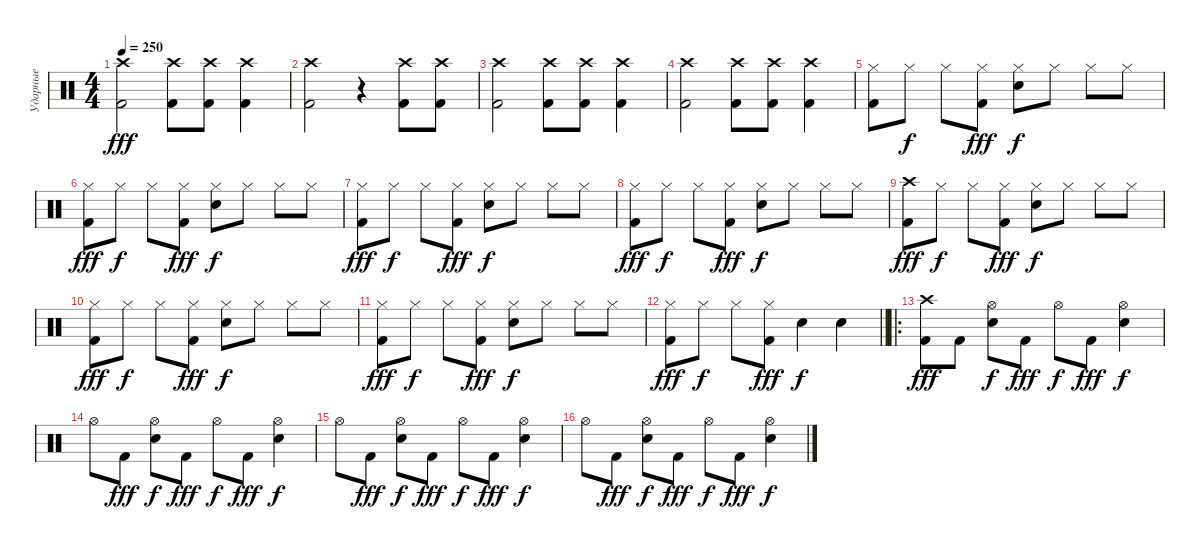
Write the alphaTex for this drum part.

\track ("Ударные" "Ударные") {instrument percussion}
\staff {score}
\articulation defaults
\ts (4 4)
\tempo 250
\clef neutral
\ks c
("Kick (hit) 2" "Crash high (hit)").2{dy fff} ("Kick (hit) 2" "Crash high (hit)").8 ("Kick (hit) 2" "Crash high (hit)").8 ("Kick (hit) 2" "Crash high (hit)").4 |
("Kick (hit) 2" "Crash high (hit)").2 r.4 ("Kick (hit) 2" "Crash high (hit)").8 ("Kick (hit) 2" "Crash high (hit)").8 |
("Kick (hit) 2" "Crash high (hit)").2 ("Kick (hit) 2" "Crash high (hit)").8 ("Kick (hit) 2" "Crash high (hit)").8 ("Kick (hit) 2" "Crash high (hit)").4 |
("Kick (hit) 2" "Crash high (hit)").2 ("Kick (hit) 2" "Crash high (hit)").8 ("Kick (hit) 2" "Crash high (hit)").8 ("Kick (hit) 2" "Crash high (hit)").4 |
("Kick (hit) 2" "Hi-Hat (closed)").8 "Hi-Hat (closed)".8{dy f} "Hi-Hat (closed)".8 ("Kick (hit) 2" "Hi-Hat (closed)").8{dy fff} ("Snare (hit) 2" "Hi-Hat (closed)").8{dy f} "Hi-Hat (closed)".8 "Hi-Hat (closed)".8 "Hi-Hat (closed)".8 |
("Kick (hit) 2" "Hi-Hat (closed)").8{dy fff} "Hi-Hat (closed)".8{dy f} "Hi-Hat (closed)".8 ("Kick (hit) 2" "Hi-Hat (closed)").8{dy fff} ("Snare (hit) 2" "Hi-Hat (closed)").8{dy f} "Hi-Hat (closed)".8 "Hi-Hat (closed)".8 "Hi-Hat (closed)".8 |
("Kick (hit) 2" "Hi-Hat (closed)").8{dy fff} "Hi-Hat (closed)".8{dy f} "Hi-Hat (closed)".8 ("Kick (hit) 2" "Hi-Hat (closed)").8{dy fff} ("Snare (hit) 2" "Hi-Hat (closed)").8{dy f} "Hi-Hat (closed)".8 "Hi-Hat (closed)".8 "Hi-Hat (closed)".8 |
("Kick (hit) 2" "Hi-Hat (closed)").8{dy fff} "Hi-Hat (closed)".8{dy f} "Hi-Hat (closed)".8 ("Kick (hit) 2" "Hi-Hat (closed)").8{dy fff} ("Snare (hit) 2" "Hi-Hat (closed)").8{dy f} "Hi-Hat (closed)".8 "Hi-Hat (closed)".8 "Hi-Hat (closed)".8 |
("Kick (hit) 2" "Crash high (hit)").8{dy fff} "Hi-Hat (closed)".8{dy f} "Hi-Hat (closed)".8 ("Kick (hit) 2" "Hi-Hat (closed)").8{dy fff} ("Snare (hit) 2" "Hi-Hat (closed)").8{dy f} "Hi-Hat (closed)".8 "Hi-Hat (closed)".8 "Hi-Hat (closed)".8 |
("Kick (hit) 2" "Hi-Hat (closed)").8{dy fff} "Hi-Hat (closed)".8{dy f} "Hi-Hat (closed)".8 ("Kick (hit) 2" "Hi-Hat (closed)").8{dy fff} ("Snare (hit) 2" "Hi-Hat (closed)").8{dy f} "Hi-Hat (closed)".8 "Hi-Hat (closed)".8 "Hi-Hat (closed)".8 |
("Kick (hit) 2" "Hi-Hat (closed)").8{dy fff} "Hi-Hat (closed)".8{dy f} "Hi-Hat (closed)".8 ("Kick (hit) 2" "Hi-Hat (closed)").8{dy fff} ("Snare (hit) 2" "Hi-Hat (closed)").8{dy f} "Hi-Hat (closed)".8 "Hi-Hat (closed)".8 "Hi-Hat (closed)".8 |
\barLineRight lightlight
("Kick (hit) 2" "Hi-Hat (closed)").8{dy fff} "Hi-Hat (closed)".8{dy f} "Hi-Hat (closed)".8 ("Kick (hit) 2" "Hi-Hat (closed)").8{dy fff} "Snare (hit) 2".4{dy f} "Snare (hit) 2".4 |
\ro
("Kick (hit) 2" "Crash high (hit)").8{dy fff} "Kick (hit) 2".8 ("Snare (hit) 2" "Hi-Hat (open)").8{dy f} "Kick (hit) 2".8{dy fff} "Hi-Hat (open)".8{dy f} "Kick (hit) 2".8{dy fff} ("Snare (hit) 2" "Hi-Hat (open)").4{dy f} |
"Hi-Hat (open)".8 "Kick (hit) 2".8{dy fff} ("Snare (hit) 2" "Hi-Hat (open)").8{dy f} "Kick (hit) 2".8{dy fff} "Hi-Hat (open)".8{dy f} "Kick (hit) 2".8{dy fff} ("Snare (hit) 2" "Hi-Hat (open)").4{dy f} |
"Hi-Hat (open)".8 "Kick (hit) 2".8{dy fff} ("Snare (hit) 2" "Hi-Hat (open)").8{dy f} "Kick (hit) 2".8{dy fff} "Hi-Hat (open)".8{dy f} "Kick (hit) 2".8{dy fff} ("Snare (hit) 2" "Hi-Hat (open)").4{dy f} |
"Hi-Hat (open)".8 "Kick (hit) 2".8{dy fff} ("Snare (hit) 2" "Hi-Hat (open)").8{dy f} "Kick (hit) 2".8{dy fff} "Hi-Hat (open)".8{dy f} "Kick (hit) 2".8{dy fff} ("Snare (hit) 2" "Hi-Hat (open)").4{dy f}
